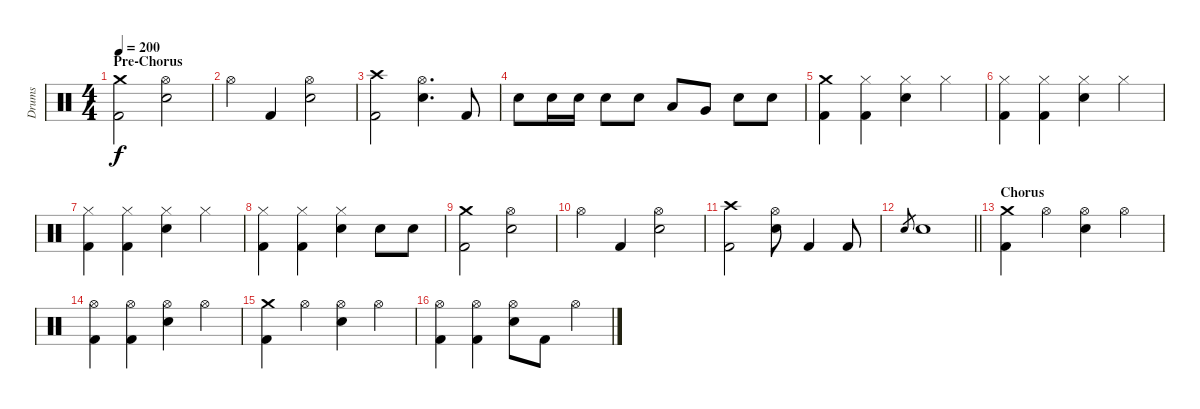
\track ("Drums" "Drums") {instrument percussion}
\staff {score}
\articulation defaults
\ts (4 4)
\section ("" "Pre-Chorus")
\tempo 200
\clef neutral
\ks c
("Crash medium (hit)" "Kick (hit) 2").2{dy f} ("Hi-Hat (open)" "Electric Snare (hit)").2 |
"Hi-Hat (open)".4 "Kick (hit) 2".4 ("Hi-Hat (open)" "Electric Snare (hit)").2 |
("Crash high (hit)" "Kick (hit) 2").2 ("Hi-Hat (open)" "Electric Snare (hit)").4{d} "Kick (hit) 2".8 |
"Electric Snare (hit)".8 "Electric Snare (hit)".16 "Electric Snare (hit)".16 "Electric Snare (hit)".8 "Electric Snare (hit)".8 "Low Tom (hit)".8 "Very Low Tom (hit)".8 "Electric Snare (hit)".8 "Electric Snare (hit)".8 |
("Crash medium (hit)" "Kick (hit) 2").4 ("Hi-Hat (closed)" "Kick (hit) 2").4 ("Hi-Hat (closed)" "Electric Snare (hit)").4 "Hi-Hat (closed)".4 |
("Hi-Hat (closed)" "Kick (hit) 2").4 ("Hi-Hat (closed)" "Kick (hit) 2").4 ("Hi-Hat (closed)" "Electric Snare (hit)").4 "Hi-Hat (closed)".4 |
("Hi-Hat (closed)" "Kick (hit) 2").4 ("Hi-Hat (closed)" "Kick (hit) 2").4 ("Hi-Hat (closed)" "Electric Snare (hit)").4 "Hi-Hat (closed)".4 |
("Hi-Hat (closed)" "Kick (hit) 2").4 ("Hi-Hat (closed)" "Kick (hit) 2").4 ("Hi-Hat (closed)" "Electric Snare (hit)").4 "Electric Snare (hit)".8 "Electric Snare (hit)".8 |
("Crash medium (hit)" "Kick (hit) 2").2 ("Hi-Hat (open)" "Electric Snare (hit)").2 |
"Hi-Hat (open)".4 "Kick (hit) 2".4 ("Hi-Hat (open)" "Electric Snare (hit)").2 |
("Crash high (hit)" "Kick (hit) 2").2 ("Hi-Hat (open)" "Electric Snare (hit)").8 "Kick (hit) 2".4 "Kick (hit) 2".8 |
\barLineRight lightlight "Electric Snare (hit)".8{gr} "Electric Snare (hit)".1
|
\section ("" "Chorus")
("Crash medium (hit)" "Kick (hit) 2").4 "Hi-Hat (open)".4 ("Hi-Hat (open)" "Electric Snare (hit)").4 "Hi-Hat (open)".4 |
("Hi-Hat (open)" "Kick (hit) 2").4 ("Hi-Hat (open)" "Kick (hit) 2").4 ("Hi-Hat (open)" "Electric Snare (hit)").4 "Hi-Hat (open)".4 |
("Crash medium (hit)" "Kick (hit) 2").4 "Hi-Hat (open)".4 ("Hi-Hat (open)" "Electric Snare (hit)").4 "Hi-Hat (open)".4 |
("Hi-Hat (open)" "Kick (hit) 2").4 ("Hi-Hat (open)" "Kick (hit) 2").4 ("Hi-Hat (open)" "Electric Snare (hit)").8 "Kick (hit) 2".8 "Hi-Hat (open)".4
